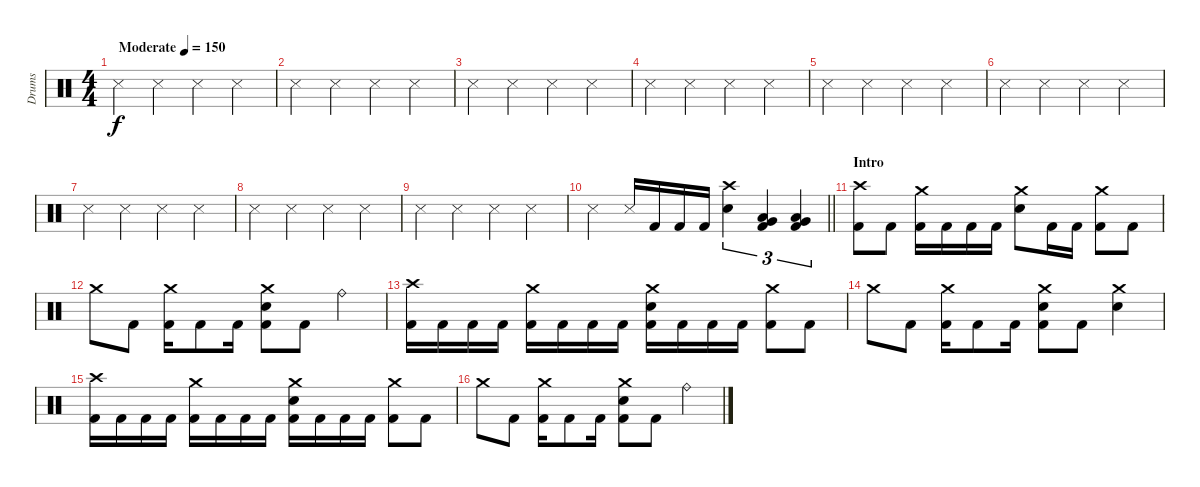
\track ("Drums" "Drums") {instrument percussion}
\staff {score}
\articulation defaults
\ts (4 4)
\tempo (150 "Moderate")
\clef neutral
\ks c "Metronome (hit)".4{dy f} "Metronome (hit)".4 "Metronome (hit)".4 "Metronome (hit)".4
|
"Metronome (hit)".4 "Metronome (hit)".4 "Metronome (hit)".4 "Metronome (hit)".4 |
"Metronome (hit)".4 "Metronome (hit)".4 "Metronome (hit)".4 "Metronome (hit)".4 |
"Metronome (hit)".4 "Metronome (hit)".4 "Metronome (hit)".4 "Metronome (hit)".4 |
"Metronome (hit)".4 "Metronome (hit)".4 "Metronome (hit)".4 "Metronome (hit)".4 |
"Metronome (hit)".4 "Metronome (hit)".4 "Metronome (hit)".4 "Metronome (hit)".4 |
"Metronome (hit)".4 "Metronome (hit)".4 "Metronome (hit)".4 "Metronome (hit)".4 |
"Metronome (hit)".4 "Metronome (hit)".4 "Metronome (hit)".4 "Metronome (hit)".4 |
"Metronome (hit)".4 "Metronome (hit)".4 "Metronome (hit)".4 "Metronome (hit)".4 |
\barLineRight lightlight "Metronome (hit)".4 "Metronome (hit)".16 "Kick (hit) 2".16 "Kick (hit) 2".16 "Kick (hit) 2".16
("Crash high (hit)" "Snare (hit) 2").4{tu (3 2)} ("Low Floor Tom (hit)" "Very Low Tom (hit)" "Kick (hit) 2").4{tu (3 2)} ("Low Floor Tom (hit)" "Very Low Tom (hit)" "Kick (hit) 2").4{tu (3 2)} |
\section ("" "Intro")
("Crash high (hit)" "Kick (hit) 2").8 "Kick (hit) 2".8 ("Crash medium (hit)" "Kick (hit) 2").16 "Kick (hit) 2".16 "Kick (hit) 2".16 "Kick (hit) 2".16 ("Crash medium (hit)" "Snare (hit) 2").8 "Kick (hit) 2".16 "Kick (hit) 2".16 ("Crash medium (hit)" "Kick (hit) 2").8 "Kick (hit) 2".8 |
"Crash medium (hit)".8 "Kick (hit) 2".8 ("Crash medium (hit)" "Kick (hit) 2").16 "Kick (hit) 2".8 "Kick (hit) 2".16 ("Crash medium (hit)" "Snare (hit) 2" "Kick (hit) 2").8 "Kick (hit) 2".8 "Ride (bell)".4 |
("Crash high (hit)" "Kick (hit) 2").16 "Kick (hit) 2".16 "Kick (hit) 2".16 "Kick (hit) 2".16 ("Crash medium (hit)" "Kick (hit) 2").16 "Kick (hit) 2".16 "Kick (hit) 2".16 "Kick (hit) 2".16 ("Crash medium (hit)" "Snare (hit) 2" "Kick (hit) 2").16 "Kick (hit) 2".16 "Kick (hit) 2".16 "Kick (hit) 2".16 ("Crash medium (hit)" "Kick (hit) 2").8 "Kick (hit) 2".8 |
"Crash medium (hit)".8 "Kick (hit) 2".8 ("Crash medium (hit)" "Kick (hit) 2").16 "Kick (hit) 2".8 "Kick (hit) 2".16 ("Crash medium (hit)" "Snare (hit) 2" "Kick (hit) 2").8 "Kick (hit) 2".8 ("Crash medium (hit)" "Snare (hit) 2").4 |
("Crash high (hit)" "Kick (hit) 2").16 "Kick (hit) 2".16 "Kick (hit) 2".16 "Kick (hit) 2".16 ("Crash medium (hit)" "Kick (hit) 2").16 "Kick (hit) 2".16 "Kick (hit) 2".16 "Kick (hit) 2".16 ("Crash medium (hit)" "Snare (hit) 2" "Kick (hit) 2").16 "Kick (hit) 2".16 "Kick (hit) 2".16 "Kick (hit) 2".16 ("Crash medium (hit)" "Kick (hit) 2").8 "Kick (hit) 2".8 |
"Crash medium (hit)".8 "Kick (hit) 2".8 ("Crash medium (hit)" "Kick (hit) 2").16 "Kick (hit) 2".8 "Kick (hit) 2".16 ("Crash medium (hit)" "Snare (hit) 2" "Kick (hit) 2").8 "Kick (hit) 2".8 "Ride (bell)".4
